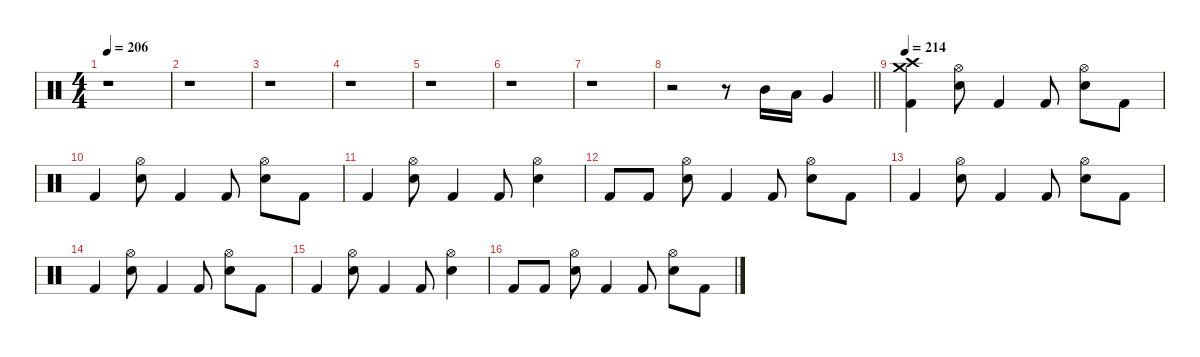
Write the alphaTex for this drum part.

\defaultSystemsLayout 4
\hideDynamics
\bracketExtendMode nobrackets
\singleTrackTrackNamePolicy hidden
\multiTrackTrackNamePolicy hidden
\firstSystemTrackNameMode fullname
\otherSystemsTrackNameOrientation horizontal
\track ("Drums" "drm.") {defaultSystemsLayout 4 instrument percussion}
\staff {score}
\articulation defaults
\ts (4 4)
\beaming (8 2 2 2 2)
\tempo 206
\clef neutral
\ks c
r.1{dy f beam Down} |
r.1{beam Down} |
r.1{beam Down} |
r.1{beam Down} |
r.1{beam Down} |
r.1{beam Down} |
r.1{beam Down} |
\barLineRight lightlight
r.2{beam Down} r.8{beam Down} "Mid Tom (hit)".16{beam Up} "Low Tom (hit)".16{beam Up} "Very Low Tom (hit)".4{beam Up} |
\tempo 214
("Crash high (hit)" "Crash medium (hit)" "Kick (hit) 2").4{beam Down} ("Hi-Hat (open)" "Snare (hit) 2").8{beam Down} "Kick (hit) 2".4{beam Up} "Kick (hit) 2".8{beam Up} ("Hi-Hat (open)" "Snare (hit) 2").8{beam Down} "Kick (hit) 2".8{dy mp beam Down} |
"Kick (hit) 2".4{dy f beam Up} ("Hi-Hat (open)" "Snare (hit) 2").8{beam Down} "Kick (hit) 2".4{beam Up} "Kick (hit) 2".8{beam Up} ("Hi-Hat (open)" "Snare (hit) 2").8{beam Down} "Kick (hit) 2".8{dy mp beam Down} |
"Kick (hit) 2".4{dy f beam Up} ("Hi-Hat (open)" "Snare (hit) 2").8{beam Down} "Kick (hit) 2".4{beam Up} "Kick (hit) 2".8{beam Up} ("Hi-Hat (open)" "Snare (hit) 2").4{beam Down} |
"Kick (hit) 2".8{beam Up} "Kick (hit) 2".8{beam Up} ("Hi-Hat (open)" "Snare (hit) 2").8{beam Down} "Kick (hit) 2".4{beam Up} "Kick (hit) 2".8{beam Up} ("Hi-Hat (open)" "Snare (hit) 2").8{beam Down} "Kick (hit) 2".8{beam Down} |
"Kick (hit) 2".4{beam Up} ("Hi-Hat (open)" "Snare (hit) 2").8{beam Down} "Kick (hit) 2".4{beam Up} "Kick (hit) 2".8{beam Up} ("Hi-Hat (open)" "Snare (hit) 2").8{beam Down} "Kick (hit) 2".8{dy mp beam Down} |
"Kick (hit) 2".4{dy f beam Up} ("Hi-Hat (open)" "Snare (hit) 2").8{beam Down} "Kick (hit) 2".4{beam Up} "Kick (hit) 2".8{beam Up} ("Hi-Hat (open)" "Snare (hit) 2").8{beam Down} "Kick (hit) 2".8{dy mp beam Down} |
"Kick (hit) 2".4{dy f beam Up} ("Hi-Hat (open)" "Snare (hit) 2").8{beam Down} "Kick (hit) 2".4{beam Up} "Kick (hit) 2".8{beam Up} ("Hi-Hat (open)" "Snare (hit) 2").4{beam Down} |
"Kick (hit) 2".8{beam Up} "Kick (hit) 2".8{beam Up} ("Hi-Hat (open)" "Snare (hit) 2").8{beam Down} "Kick (hit) 2".4{beam Up} "Kick (hit) 2".8{beam Up} ("Hi-Hat (open)" "Snare (hit) 2").8{beam Down} "Kick (hit) 2".8{beam Down}
